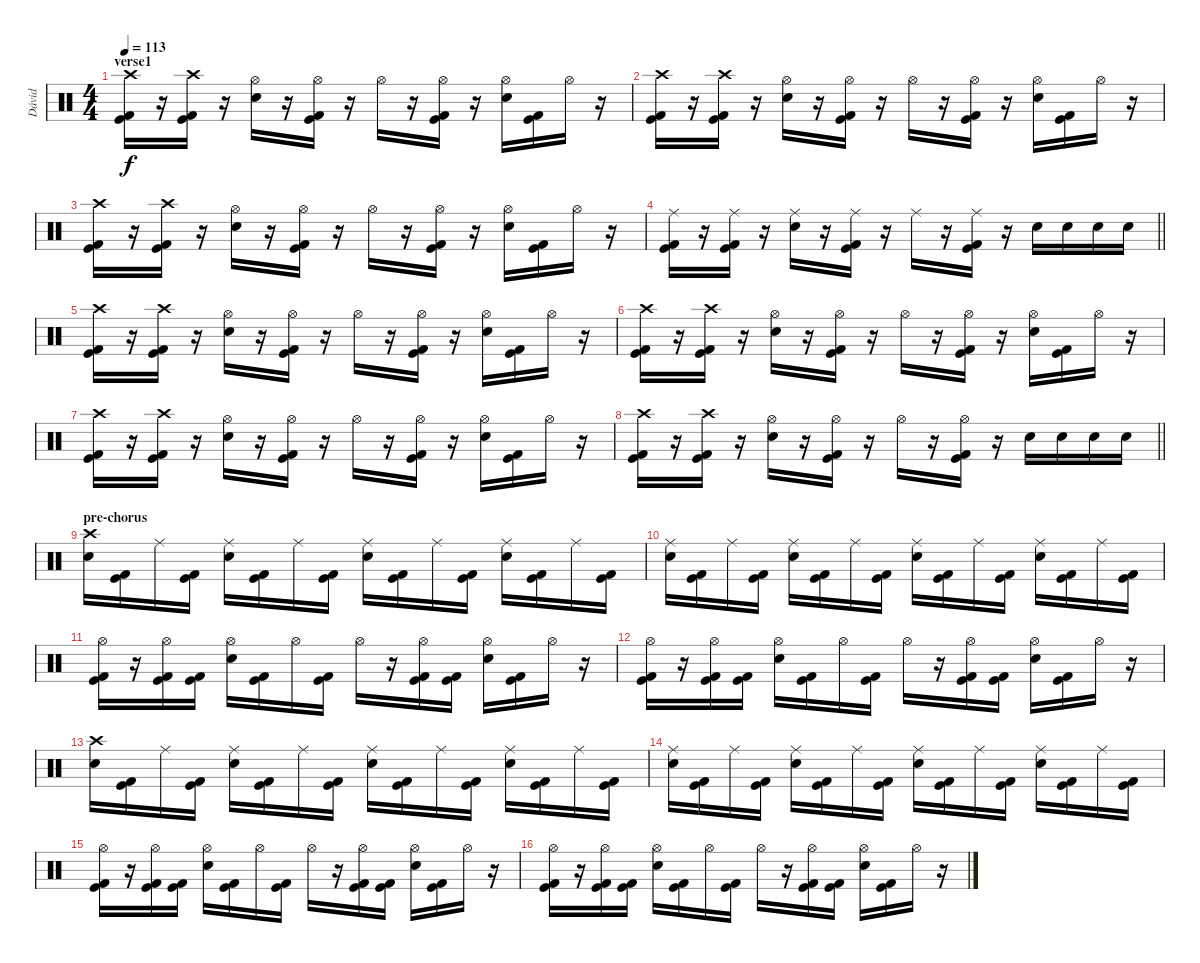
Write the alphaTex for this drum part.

\track ("Dávid" "Dávid") {instrument percussion}
\staff {score}
\articulation defaults
\ts (4 4)
\section ("" "verse1")
\tempo 113
\clef neutral
\ks c
("Crash high (hit)" "Kick (hit)" "Kick (hit) 2").16{dy f} r.16 ("Crash high (hit)" "Kick (hit)" "Kick (hit) 2").16 r.16 ("Hi-Hat (open)" "Snare (hit) 2").16 r.16 ("Hi-Hat (open)" "Kick (hit) 2" "Kick (hit)").16 r.16 "Hi-Hat (open)".16 r.16 ("Hi-Hat (open)" "Kick (hit) 2" "Kick (hit)").16 r.16 ("Hi-Hat (open)" "Snare (hit) 2").16 ("Kick (hit) 2" "Kick (hit)").16 "Hi-Hat (open)".16 r.16 |
("Crash high (hit)" "Kick (hit)" "Kick (hit) 2").16 r.16 ("Crash high (hit)" "Kick (hit)" "Kick (hit) 2").16 r.16 ("Hi-Hat (open)" "Snare (hit) 2").16 r.16 ("Hi-Hat (open)" "Kick (hit) 2" "Kick (hit)").16 r.16 "Hi-Hat (open)".16 r.16 ("Hi-Hat (open)" "Kick (hit) 2" "Kick (hit)").16 r.16 ("Hi-Hat (open)" "Snare (hit) 2").16 ("Kick (hit) 2" "Kick (hit)").16 "Hi-Hat (open)".16 r.16 |
("Crash high (hit)" "Kick (hit)" "Kick (hit) 2").16 r.16 ("Crash high (hit)" "Kick (hit)" "Kick (hit) 2").16 r.16 ("Hi-Hat (open)" "Snare (hit) 2").16 r.16 ("Hi-Hat (open)" "Kick (hit) 2" "Kick (hit)").16 r.16 "Hi-Hat (open)".16 r.16 ("Hi-Hat (open)" "Kick (hit) 2" "Kick (hit)").16 r.16 ("Hi-Hat (open)" "Snare (hit) 2").16 ("Kick (hit) 2" "Kick (hit)").16 "Hi-Hat (open)".16 r.16 |
\barLineRight lightlight
("Ride (middle)" "Kick (hit)" "Kick (hit) 2").16 r.16 ("Ride (middle)" "Kick (hit)" "Kick (hit) 2").16 r.16 ("Ride (middle)" "Snare (hit) 2").16 r.16 ("Ride (middle)" "Kick (hit) 2" "Kick (hit)").16 r.16 "Ride (middle)".16 r.16 ("Ride (middle)" "Kick (hit) 2" "Kick (hit)").16 r.16 "Snare (hit) 2".16 "Snare (hit) 2".16 "Snare (hit) 2".16 "Snare (hit) 2".16 |
("Crash high (hit)" "Kick (hit)" "Kick (hit) 2").16 r.16 ("Crash high (hit)" "Kick (hit)" "Kick (hit) 2").16 r.16 ("Hi-Hat (open)" "Snare (hit) 2").16 r.16 ("Hi-Hat (open)" "Kick (hit) 2" "Kick (hit)").16 r.16 "Hi-Hat (open)".16 r.16 ("Hi-Hat (open)" "Kick (hit) 2" "Kick (hit)").16 r.16 ("Hi-Hat (open)" "Snare (hit) 2").16 ("Kick (hit) 2" "Kick (hit)").16 "Hi-Hat (open)".16 r.16 |
("Crash high (hit)" "Kick (hit)" "Kick (hit) 2").16 r.16 ("Crash high (hit)" "Kick (hit)" "Kick (hit) 2").16 r.16 ("Hi-Hat (open)" "Snare (hit) 2").16 r.16 ("Hi-Hat (open)" "Kick (hit) 2" "Kick (hit)").16 r.16 "Hi-Hat (open)".16 r.16 ("Hi-Hat (open)" "Kick (hit) 2" "Kick (hit)").16 r.16 ("Hi-Hat (open)" "Snare (hit) 2").16 ("Kick (hit) 2" "Kick (hit)").16 "Hi-Hat (open)".16 r.16 |
("Crash high (hit)" "Kick (hit)" "Kick (hit) 2").16 r.16 ("Crash high (hit)" "Kick (hit)" "Kick (hit) 2").16 r.16 ("Hi-Hat (open)" "Snare (hit) 2").16 r.16 ("Hi-Hat (open)" "Kick (hit) 2" "Kick (hit)").16 r.16 "Hi-Hat (open)".16 r.16 ("Hi-Hat (open)" "Kick (hit) 2" "Kick (hit)").16 r.16 ("Hi-Hat (open)" "Snare (hit) 2").16 ("Kick (hit) 2" "Kick (hit)").16 "Hi-Hat (open)".16 r.16 |
\barLineRight lightlight
("Crash high (hit)" "Kick (hit)" "Kick (hit) 2").16 r.16 ("Crash high (hit)" "Kick (hit)" "Kick (hit) 2").16 r.16 ("Hi-Hat (open)" "Snare (hit) 2").16 r.16 ("Hi-Hat (open)" "Kick (hit) 2" "Kick (hit)").16 r.16 "Hi-Hat (open)".16 r.16 ("Hi-Hat (open)" "Kick (hit) 2" "Kick (hit)").16 r.16 "Snare (hit) 2".16 "Snare (hit) 2".16 "Snare (hit) 2".16 "Snare (hit) 2".16 |
\section ("" "pre-chorus")
("Crash high (hit)" "Snare (hit) 2").16 ("Kick (hit)" "Kick (hit) 2").16 "Ride (middle)".16 ("Kick (hit)" "Kick (hit) 2").16 ("Ride (middle)" "Snare (hit) 2").16 ("Kick (hit)" "Kick (hit) 2").16 "Ride (middle)".16 ("Kick (hit)" "Kick (hit) 2").16 ("Ride (middle)" "Snare (hit) 2").16 ("Kick (hit)" "Kick (hit) 2").16 "Ride (middle)".16 ("Kick (hit)" "Kick (hit) 2").16 ("Ride (middle)" "Snare (hit) 2").16 ("Kick (hit)" "Kick (hit) 2").16 "Ride (middle)".16 ("Kick (hit)" "Kick (hit) 2").16 |
("Ride (middle)" "Snare (hit) 2").16 ("Kick (hit)" "Kick (hit) 2").16 "Ride (middle)".16 ("Kick (hit)" "Kick (hit) 2").16 ("Ride (middle)" "Snare (hit) 2").16 ("Kick (hit)" "Kick (hit) 2").16 "Ride (middle)".16 ("Kick (hit)" "Kick (hit) 2").16 ("Ride (middle)" "Snare (hit) 2").16 ("Kick (hit)" "Kick (hit) 2").16 "Ride (middle)".16 ("Kick (hit)" "Kick (hit) 2").16 ("Ride (middle)" "Snare (hit) 2").16 ("Kick (hit)" "Kick (hit) 2").16 "Ride (middle)".16 ("Kick (hit)" "Kick (hit) 2").16 |
("Hi-Hat (open)" "Kick (hit)" "Kick (hit) 2").16 r.16 ("Hi-Hat (open)" "Kick (hit)" "Kick (hit) 2").16 ("Kick (hit)" "Kick (hit) 2").16 ("Hi-Hat (open)" "Snare (hit) 2").16 ("Kick (hit)" "Kick (hit) 2").16 "Hi-Hat (open)".16 ("Kick (hit)" "Kick (hit) 2").16 "Hi-Hat (open)".16 r.16 ("Hi-Hat (open)" "Kick (hit)" "Kick (hit) 2").16 ("Kick (hit) 2" "Kick (hit)").16 ("Hi-Hat (open)" "Snare (hit) 2").16 ("Kick (hit)" "Kick (hit) 2").16 "Hi-Hat (open)".16 r.16 |
("Hi-Hat (open)" "Kick (hit)" "Kick (hit) 2").16 r.16 ("Hi-Hat (open)" "Kick (hit)" "Kick (hit) 2").16 ("Kick (hit)" "Kick (hit) 2").16 ("Hi-Hat (open)" "Snare (hit) 2").16 ("Kick (hit)" "Kick (hit) 2").16 "Hi-Hat (open)".16 ("Kick (hit)" "Kick (hit) 2").16 "Hi-Hat (open)".16 r.16 ("Hi-Hat (open)" "Kick (hit)" "Kick (hit) 2").16 ("Kick (hit) 2" "Kick (hit)").16 ("Hi-Hat (open)" "Snare (hit) 2").16 ("Kick (hit)" "Kick (hit) 2").16 "Hi-Hat (open)".16 r.16 |
("Crash high (hit)" "Snare (hit) 2").16 ("Kick (hit)" "Kick (hit) 2").16 "Ride (middle)".16 ("Kick (hit)" "Kick (hit) 2").16 ("Ride (middle)" "Snare (hit) 2").16 ("Kick (hit)" "Kick (hit) 2").16 "Ride (middle)".16 ("Kick (hit)" "Kick (hit) 2").16 ("Ride (middle)" "Snare (hit) 2").16 ("Kick (hit)" "Kick (hit) 2").16 "Ride (middle)".16 ("Kick (hit)" "Kick (hit) 2").16 ("Ride (middle)" "Snare (hit) 2").16 ("Kick (hit)" "Kick (hit) 2").16 "Ride (middle)".16 ("Kick (hit)" "Kick (hit) 2").16 |
("Ride (middle)" "Snare (hit) 2").16 ("Kick (hit)" "Kick (hit) 2").16 "Ride (middle)".16 ("Kick (hit)" "Kick (hit) 2").16 ("Ride (middle)" "Snare (hit) 2").16 ("Kick (hit)" "Kick (hit) 2").16 "Ride (middle)".16 ("Kick (hit)" "Kick (hit) 2").16 ("Ride (middle)" "Snare (hit) 2").16 ("Kick (hit)" "Kick (hit) 2").16 "Ride (middle)".16 ("Kick (hit)" "Kick (hit) 2").16 ("Ride (middle)" "Snare (hit) 2").16 ("Kick (hit)" "Kick (hit) 2").16 "Ride (middle)".16 ("Kick (hit)" "Kick (hit) 2").16 |
("Hi-Hat (open)" "Kick (hit)" "Kick (hit) 2").16 r.16 ("Hi-Hat (open)" "Kick (hit)" "Kick (hit) 2").16 ("Kick (hit)" "Kick (hit) 2").16 ("Hi-Hat (open)" "Snare (hit) 2").16 ("Kick (hit)" "Kick (hit) 2").16 "Hi-Hat (open)".16 ("Kick (hit)" "Kick (hit) 2").16 "Hi-Hat (open)".16 r.16 ("Hi-Hat (open)" "Kick (hit)" "Kick (hit) 2").16 ("Kick (hit) 2" "Kick (hit)").16 ("Hi-Hat (open)" "Snare (hit) 2").16 ("Kick (hit)" "Kick (hit) 2").16 "Hi-Hat (open)".16 r.16 |
("Hi-Hat (open)" "Kick (hit)" "Kick (hit) 2").16 r.16 ("Hi-Hat (open)" "Kick (hit)" "Kick (hit) 2").16 ("Kick (hit)" "Kick (hit) 2").16 ("Hi-Hat (open)" "Snare (hit) 2").16 ("Kick (hit)" "Kick (hit) 2").16 "Hi-Hat (open)".16 ("Kick (hit)" "Kick (hit) 2").16 "Hi-Hat (open)".16 r.16 ("Hi-Hat (open)" "Kick (hit)" "Kick (hit) 2").16 ("Kick (hit) 2" "Kick (hit)").16 ("Hi-Hat (open)" "Snare (hit) 2").16 ("Kick (hit)" "Kick (hit) 2").16 "Hi-Hat (open)".16 r.16
